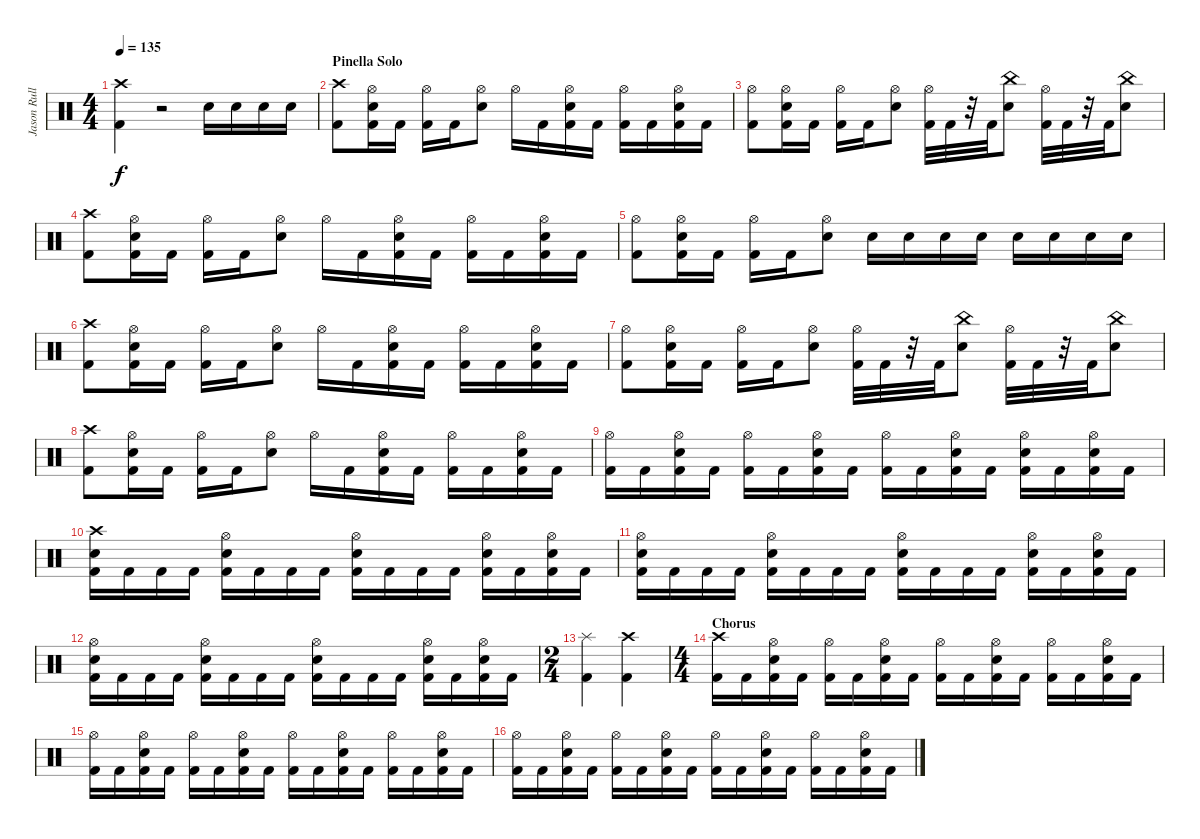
\track ("Jason Rullo" "Jason Rull") {instrument percussion}
\staff {score}
\articulation defaults
\ts (4 4)
\tempo 135
\clef neutral
\ks c
("Crash high (hit)" "Kick (hit) 2").4{dy f} r.2 "Electric Snare (hit)".16 "Electric Snare (hit)".16 "Electric Snare (hit)".16 "Electric Snare (hit)".16 |
\section ("" "Pinella Solo")
("Crash high (hit)" "Kick (hit) 2").8 ("Hi-Hat (open)" "Electric Snare (hit)" "Kick (hit) 2").16 "Kick (hit) 2".16 ("Hi-Hat (open)" "Kick (hit) 2").16 "Kick (hit) 2".16 ("Hi-Hat (open)" "Electric Snare (hit)").8 "Hi-Hat (open)".16 "Kick (hit) 2".16 ("Hi-Hat (open)" "Electric Snare (hit)" "Kick (hit) 2").16 "Kick (hit) 2".16 ("Hi-Hat (open)" "Kick (hit) 2").16 "Kick (hit) 2".16 ("Hi-Hat (open)" "Electric Snare (hit)" "Kick (hit) 2").16 "Kick (hit) 2".16 |
("Hi-Hat (open)" "Kick (hit) 2").8 ("Hi-Hat (open)" "Electric Snare (hit)" "Kick (hit) 2").16 "Kick (hit) 2".16 ("Hi-Hat (open)" "Kick (hit) 2").16 "Kick (hit) 2".16 ("Hi-Hat (open)" "Electric Snare (hit)").8 ("Hi-Hat (open)" "Kick (hit) 2").32 "Kick (hit) 2".32 r.32 "Kick (hit) 2".32 ("China (hit)" "Electric Snare (hit)").8 ("Hi-Hat (open)" "Kick (hit) 2").32 "Kick (hit) 2".32 r.32 "Kick (hit) 2".32 ("China (hit)" "Electric Snare (hit)").8 |
("Crash high (hit)" "Kick (hit) 2").8 ("Hi-Hat (open)" "Electric Snare (hit)" "Kick (hit) 2").16 "Kick (hit) 2".16 ("Hi-Hat (open)" "Kick (hit) 2").16 "Kick (hit) 2".16 ("Hi-Hat (open)" "Electric Snare (hit)").8 "Hi-Hat (open)".16 "Kick (hit) 2".16 ("Hi-Hat (open)" "Electric Snare (hit)" "Kick (hit) 2").16 "Kick (hit) 2".16 ("Hi-Hat (open)" "Kick (hit) 2").16 "Kick (hit) 2".16 ("Hi-Hat (open)" "Electric Snare (hit)" "Kick (hit) 2").16 "Kick (hit) 2".16 |
("Hi-Hat (open)" "Kick (hit) 2").8 ("Hi-Hat (open)" "Electric Snare (hit)" "Kick (hit) 2").16 "Kick (hit) 2".16 ("Hi-Hat (open)" "Kick (hit) 2").16 "Kick (hit) 2".16 ("Hi-Hat (open)" "Electric Snare (hit)").8 "Electric Snare (hit)".16 "Electric Snare (hit)".16 "Electric Snare (hit)".16 "Electric Snare (hit)".16 "Electric Snare (hit)".16 "Electric Snare (hit)".16 "Electric Snare (hit)".16 "Electric Snare (hit)".16 |
("Crash high (hit)" "Kick (hit) 2").8 ("Hi-Hat (open)" "Electric Snare (hit)" "Kick (hit) 2").16 "Kick (hit) 2".16 ("Hi-Hat (open)" "Kick (hit) 2").16 "Kick (hit) 2".16 ("Hi-Hat (open)" "Electric Snare (hit)").8 "Hi-Hat (open)".16 "Kick (hit) 2".16 ("Hi-Hat (open)" "Electric Snare (hit)" "Kick (hit) 2").16 "Kick (hit) 2".16 ("Hi-Hat (open)" "Kick (hit) 2").16 "Kick (hit) 2".16 ("Hi-Hat (open)" "Electric Snare (hit)" "Kick (hit) 2").16 "Kick (hit) 2".16 |
("Hi-Hat (open)" "Kick (hit) 2").8 ("Hi-Hat (open)" "Electric Snare (hit)" "Kick (hit) 2").16 "Kick (hit) 2".16 ("Hi-Hat (open)" "Kick (hit) 2").16 "Kick (hit) 2".16 ("Hi-Hat (open)" "Electric Snare (hit)").8 ("Hi-Hat (open)" "Kick (hit) 2").32 "Kick (hit) 2".32 r.32 "Kick (hit) 2".32 ("China (hit)" "Electric Snare (hit)").8 ("Hi-Hat (open)" "Kick (hit) 2").32 "Kick (hit) 2".32 r.32 "Kick (hit) 2".32 ("China (hit)" "Electric Snare (hit)").8 |
("Crash high (hit)" "Kick (hit) 2").8 ("Hi-Hat (open)" "Electric Snare (hit)" "Kick (hit) 2").16 "Kick (hit) 2".16 ("Hi-Hat (open)" "Kick (hit) 2").16 "Kick (hit) 2".16 ("Hi-Hat (open)" "Electric Snare (hit)").8 "Hi-Hat (open)".16 "Kick (hit) 2".16 ("Hi-Hat (open)" "Electric Snare (hit)" "Kick (hit) 2").16 "Kick (hit) 2".16 ("Hi-Hat (open)" "Kick (hit) 2").16 "Kick (hit) 2".16 ("Hi-Hat (open)" "Electric Snare (hit)" "Kick (hit) 2").16 "Kick (hit) 2".16 |
("Hi-Hat (open)" "Kick (hit) 2").16 "Kick (hit) 2".16 ("Hi-Hat (open)" "Electric Snare (hit)" "Kick (hit) 2").16 "Kick (hit) 2".16 ("Hi-Hat (open)" "Kick (hit) 2").16 "Kick (hit) 2".16 ("Hi-Hat (open)" "Electric Snare (hit)" "Kick (hit) 2").16 "Kick (hit) 2".16 ("Hi-Hat (open)" "Kick (hit) 2").16 "Kick (hit) 2".16 ("Hi-Hat (open)" "Electric Snare (hit)" "Kick (hit) 2").16 "Kick (hit) 2".16 ("Hi-Hat (open)" "Electric Snare (hit)" "Kick (hit) 2").16 "Kick (hit) 2".16 ("Hi-Hat (open)" "Electric Snare (hit)" "Kick (hit) 2").16 "Kick (hit) 2".16 |
("Crash high (hit)" "Electric Snare (hit)" "Kick (hit) 2").16 "Kick (hit) 2".16 "Kick (hit) 2".16 "Kick (hit) 2".16 ("Hi-Hat (open)" "Electric Snare (hit)" "Kick (hit) 2").16 "Kick (hit) 2".16 "Kick (hit) 2".16 "Kick (hit) 2".16 ("Hi-Hat (open)" "Electric Snare (hit)" "Kick (hit) 2").16 "Kick (hit) 2".16 "Kick (hit) 2".16 "Kick (hit) 2".16 ("Hi-Hat (open)" "Electric Snare (hit)" "Kick (hit) 2").16 "Kick (hit) 2".16 ("Hi-Hat (open)" "Electric Snare (hit)" "Kick (hit) 2").16 "Kick (hit) 2".16 |
("Hi-Hat (open)" "Electric Snare (hit)" "Kick (hit) 2").16 "Kick (hit) 2".16 "Kick (hit) 2".16 "Kick (hit) 2".16 ("Hi-Hat (open)" "Electric Snare (hit)" "Kick (hit) 2").16 "Kick (hit) 2".16 "Kick (hit) 2".16 "Kick (hit) 2".16 ("Hi-Hat (open)" "Electric Snare (hit)" "Kick (hit) 2").16 "Kick (hit) 2".16 "Kick (hit) 2".16 "Kick (hit) 2".16 ("Hi-Hat (open)" "Electric Snare (hit)" "Kick (hit) 2").16 "Kick (hit) 2".16 ("Hi-Hat (open)" "Electric Snare (hit)" "Kick (hit) 2").16 "Kick (hit) 2".16 |
("Hi-Hat (open)" "Electric Snare (hit)" "Kick (hit) 2").16 "Kick (hit) 2".16 "Kick (hit) 2".16 "Kick (hit) 2".16 ("Hi-Hat (open)" "Electric Snare (hit)" "Kick (hit) 2").16 "Kick (hit) 2".16 "Kick (hit) 2".16 "Kick (hit) 2".16 ("Hi-Hat (open)" "Electric Snare (hit)" "Kick (hit) 2").16 "Kick (hit) 2".16 "Kick (hit) 2".16 "Kick (hit) 2".16 ("Hi-Hat (open)" "Electric Snare (hit)" "Kick (hit) 2").16 "Kick (hit) 2".16 ("Hi-Hat (open)" "Electric Snare (hit)" "Kick (hit) 2").16 "Kick (hit) 2".16 |
\ts (2 4)
("Splash (hit)" "Kick (hit) 2").4 ("Crash high (hit)" "Kick (hit) 2").4 |
\ts (4 4)
\section ("" "Chorus")
("Kick (hit) 2" "Crash high (hit)").16 "Kick (hit) 2".16 ("Hi-Hat (open)" "Electric Snare (hit)" "Kick (hit) 2").16 "Kick (hit) 2".16 ("Hi-Hat (open)" "Kick (hit) 2").16 "Kick (hit) 2".16 ("Hi-Hat (open)" "Electric Snare (hit)" "Kick (hit) 2").16 "Kick (hit) 2".16 ("Hi-Hat (open)" "Kick (hit) 2").16 "Kick (hit) 2".16 ("Hi-Hat (open)" "Electric Snare (hit)" "Kick (hit) 2").16 "Kick (hit) 2".16 ("Hi-Hat (open)" "Kick (hit) 2").16 "Kick (hit) 2".16 ("Hi-Hat (open)" "Electric Snare (hit)" "Kick (hit) 2").16 "Kick (hit) 2".16 |
("Kick (hit) 2" "Hi-Hat (open)").16 "Kick (hit) 2".16 ("Kick (hit) 2" "Electric Snare (hit)" "Hi-Hat (open)").16 "Kick (hit) 2".16 ("Kick (hit) 2" "Hi-Hat (open)").16 "Kick (hit) 2".16 ("Kick (hit) 2" "Electric Snare (hit)" "Hi-Hat (open)").16 "Kick (hit) 2".16 ("Kick (hit) 2" "Hi-Hat (open)").16 "Kick (hit) 2".16 ("Kick (hit) 2" "Electric Snare (hit)" "Hi-Hat (open)").16 "Kick (hit) 2".16 ("Kick (hit) 2" "Hi-Hat (open)").16 "Kick (hit) 2".16 ("Kick (hit) 2" "Electric Snare (hit)" "Hi-Hat (open)").16 "Kick (hit) 2".16 |
("Kick (hit) 2" "Hi-Hat (open)").16 "Kick (hit) 2".16 ("Kick (hit) 2" "Electric Snare (hit)" "Hi-Hat (open)").16 "Kick (hit) 2".16 ("Kick (hit) 2" "Hi-Hat (open)").16 "Kick (hit) 2".16 ("Kick (hit) 2" "Electric Snare (hit)" "Hi-Hat (open)").16 "Kick (hit) 2".16 ("Kick (hit) 2" "Hi-Hat (open)").16 "Kick (hit) 2".16 ("Kick (hit) 2" "Electric Snare (hit)" "Hi-Hat (open)").16 "Kick (hit) 2".16 ("Kick (hit) 2" "Hi-Hat (open)").16 "Kick (hit) 2".16 ("Kick (hit) 2" "Electric Snare (hit)" "Hi-Hat (open)").16 "Kick (hit) 2".16
